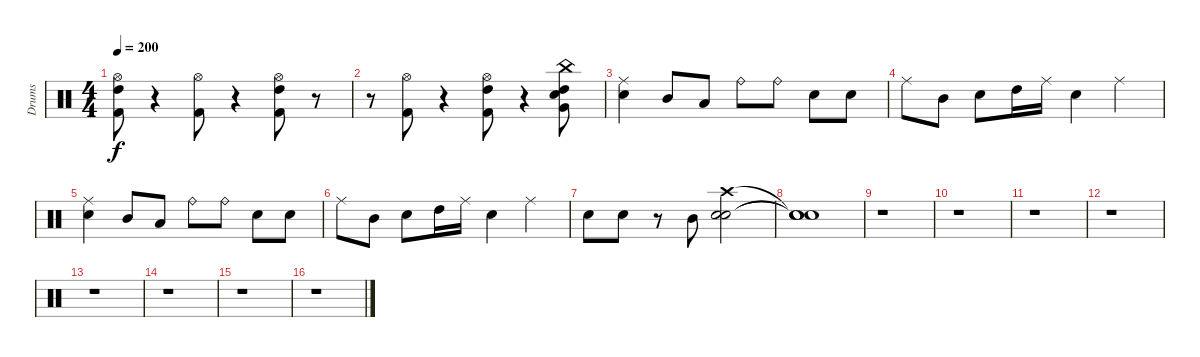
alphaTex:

\track ("Drums" "Drums") {instrument percussion}
\staff {score}
\articulation defaults
\ts (4 4)
\tempo 200
\clef neutral
\ks c
("High Tom (hit)" "Kick (hit) 2" "Hi-Hat (open)").8{dy f} r.4 ("Kick (hit) 2" "Hi-Hat (open)").8 r.4 ("High Tom (hit)" "Kick (hit) 2" "Hi-Hat (open)").8 r.8 |
r.8 ("Kick (hit) 2" "Hi-Hat (open)").8 r.4 ("High Tom (hit)" "Kick (hit) 2" "Hi-Hat (open)").8 r.4 ("Snare (hit) 2" "Very Low Tom (hit)" "High Tom (hit)" "China (hit)").8 |
("Ride (middle)" "Electric Snare (hit)").4 "Mid Tom (hit)".8 "Low Tom (hit)".8 "Ride (bell)".8 "Ride (bell)".8 "Electric Snare (hit)".8 "Electric Snare (hit)".8 |
"Ride (middle)".8 "Mid Tom (hit)".8 "Electric Snare (hit)".8 "High Tom (hit)".16 "Ride (middle)".16 "Electric Snare (hit)".4 "Ride (middle)".4 |
("Ride (middle)" "Electric Snare (hit)").4 "Mid Tom (hit)".8 "Low Tom (hit)".8 "Ride (bell)".8 "Ride (bell)".8 "Electric Snare (hit)".8 "Electric Snare (hit)".8 |
"Ride (middle)".8 "Mid Tom (hit)".8 "Electric Snare (hit)".8 "High Tom (hit)".16 "Ride (middle)".16 "Electric Snare (hit)".4 "Ride (middle)".4 |
"Electric Snare (hit)".8 "Electric Snare (hit)".8 r.8 "Mid Tom (hit)".8 ("Snare (hit) 2" "Electric Snare (hit)" "Crash high (hit)").2 |
("Snare (hit)"{t} "Snare (hit)"{t} "Snare (hit)"{t}).1 |
r.1 |
r.1 |
r.1 |
r.1 |
r.1 |
r.1 |
r.1 |
r.1
